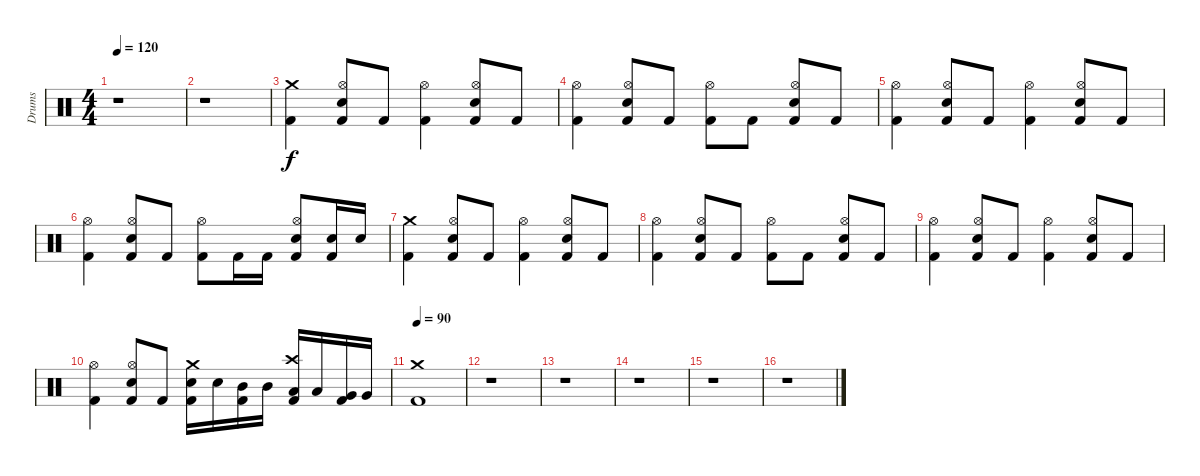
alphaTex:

\track ("Drums" "Drums") {instrument percussion}
\staff {score}
\articulation defaults
\ts (4 4)
\tempo 120
\clef neutral
\ks c
r.1{dy f} |
r.1 |
("Crash medium (hit)" "Kick (hit) 2").4 ("Kick (hit) 2" "Hi-Hat (open)" "Snare (hit) 2").8 "Kick (hit) 2".8 ("Hi-Hat (open)" "Kick (hit) 2").4 ("Kick (hit) 2" "Hi-Hat (open)" "Snare (hit) 2").8 "Kick (hit) 2".8 |
("Hi-Hat (open)" "Kick (hit) 2").4 ("Kick (hit) 2" "Hi-Hat (open)" "Snare (hit) 2").8 "Kick (hit) 2".8 ("Hi-Hat (open)" "Kick (hit) 2").8 "Kick (hit) 2".8 ("Kick (hit) 2" "Hi-Hat (open)" "Snare (hit) 2").8 "Kick (hit) 2".8 |
("Hi-Hat (open)" "Kick (hit) 2").4 ("Kick (hit) 2" "Hi-Hat (open)" "Snare (hit) 2").8 "Kick (hit) 2".8 ("Hi-Hat (open)" "Kick (hit) 2").4 ("Kick (hit) 2" "Hi-Hat (open)" "Snare (hit) 2").8 "Kick (hit) 2".8 |
("Hi-Hat (open)" "Kick (hit) 2").4 ("Kick (hit) 2" "Hi-Hat (open)" "Snare (hit) 2").8 "Kick (hit) 2".8 ("Hi-Hat (open)" "Kick (hit) 2").8 "Kick (hit) 2".16 "Kick (hit) 2".16 ("Kick (hit) 2" "Hi-Hat (open)" "Snare (hit) 2").8 ("Kick (hit) 2" "Snare (hit) 2").16 "Snare (hit) 2".16 |
("Crash medium (hit)" "Kick (hit) 2").4 ("Kick (hit) 2" "Hi-Hat (open)" "Snare (hit) 2").8 "Kick (hit) 2".8 ("Hi-Hat (open)" "Kick (hit) 2").4 ("Kick (hit) 2" "Hi-Hat (open)" "Snare (hit) 2").8 "Kick (hit) 2".8 |
("Hi-Hat (open)" "Kick (hit) 2").4 ("Kick (hit) 2" "Hi-Hat (open)" "Snare (hit) 2").8 "Kick (hit) 2".8 ("Hi-Hat (open)" "Kick (hit) 2").8 "Kick (hit) 2".8 ("Kick (hit) 2" "Hi-Hat (open)" "Snare (hit) 2").8 "Kick (hit) 2".8 |
("Hi-Hat (open)" "Kick (hit) 2").4 ("Kick (hit) 2" "Hi-Hat (open)" "Snare (hit) 2").8 "Kick (hit) 2".8 ("Hi-Hat (open)" "Kick (hit) 2").4 ("Kick (hit) 2" "Hi-Hat (open)" "Snare (hit) 2").8 "Kick (hit) 2".8 |
("Hi-Hat (open)" "Kick (hit) 2").4 ("Kick (hit) 2" "Hi-Hat (open)" "Snare (hit) 2").8 "Kick (hit) 2".8 ("Kick (hit) 2" "Crash medium (hit)" "Snare (hit) 2").16 "Snare (hit) 2".16 ("Kick (hit) 2" "Mid Tom (hit)").16 "Mid Tom (hit)".16 ("Kick (hit) 2" "Crash high (hit)" "Low Tom (hit)").16 "Low Tom (hit)".16 ("Kick (hit) 2" "Very Low Tom (hit)").16 "Very Low Tom (hit)".16 |
\tempo 110
\tempo 90
("Crash medium (hit)" "Kick (hit) 2").1 |
r.1 |
r.1 |
r.1 |
r.1 |
r.1
